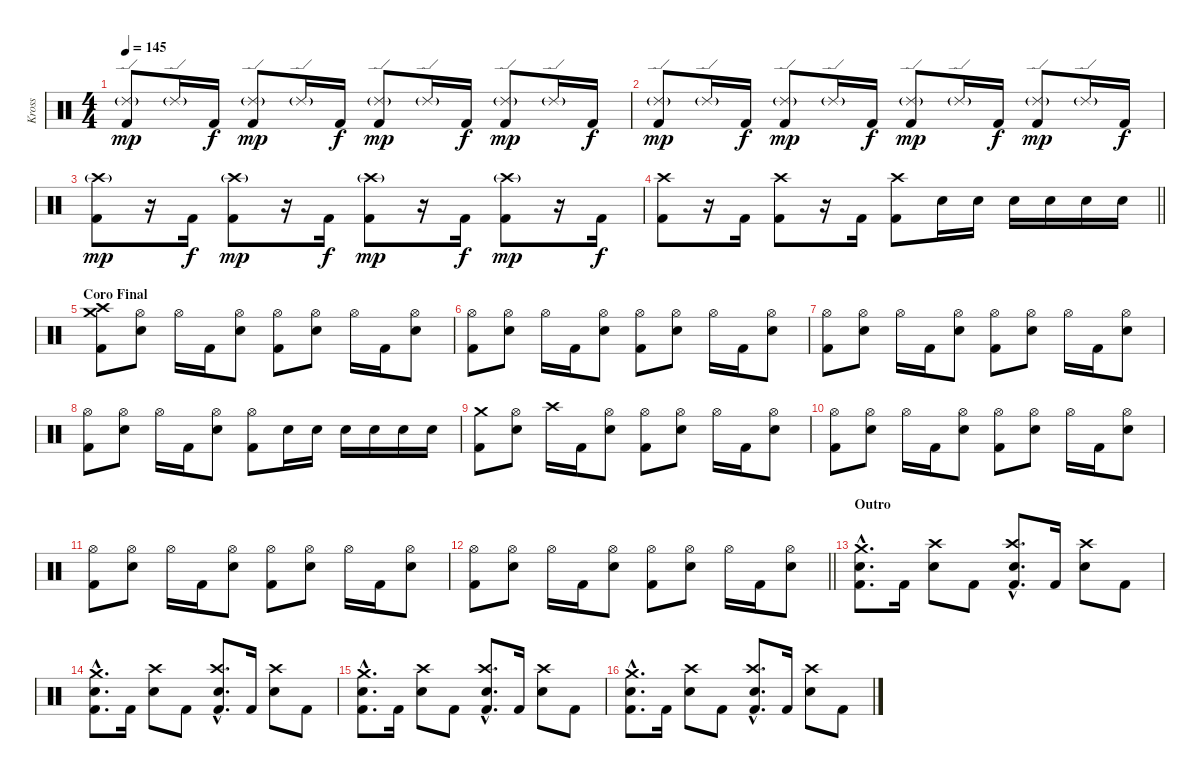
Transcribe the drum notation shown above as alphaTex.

\track ("Kross" "Kross") {instrument percussion}
\staff {score}
\articulation defaults
\ts (4 4)
\tempo 145
\clef neutral
\ks c
("Ride (edge) 2"{g} "Kick (hit) 2").8{dy mp} "Ride (edge) 2"{g}.16 "Kick (hit) 2".16{dy f} ("Ride (edge) 2"{g} "Kick (hit) 2").8{dy mp} "Ride (edge) 2"{g}.16 "Kick (hit) 2".16{dy f} ("Ride (edge) 2"{g} "Kick (hit) 2").8{dy mp} "Ride (edge) 2"{g}.16 "Kick (hit) 2".16{dy f} ("Ride (edge) 2"{g} "Kick (hit) 2").8{dy mp} "Ride (edge) 2"{g}.16 "Kick (hit) 2".16{dy f} |
("Ride (edge) 2"{g} "Kick (hit) 2").8{dy mp} "Ride (edge) 2"{g}.16 "Kick (hit) 2".16{dy f} ("Ride (edge) 2"{g} "Kick (hit) 2").8{dy mp} "Ride (edge) 2"{g}.16 "Kick (hit) 2".16{dy f} ("Ride (edge) 2"{g} "Kick (hit) 2").8{dy mp} "Ride (edge) 2"{g}.16 "Kick (hit) 2".16{dy f} ("Ride (edge) 2"{g} "Kick (hit) 2").8{dy mp} "Ride (edge) 2"{g}.16 "Kick (hit) 2".16{dy f} |
("Crash high (hit)"{g} "Kick (hit) 2").8{dy mp} r.16 "Kick (hit) 2".16{dy f} ("Crash high (hit)"{g} "Kick (hit) 2").8{dy mp} r.16 "Kick (hit) 2".16{dy f} ("Crash high (hit)"{g} "Kick (hit) 2").8{dy mp} r.16 "Kick (hit) 2".16{dy f} ("Crash high (hit)"{g} "Kick (hit) 2").8{dy mp} r.16 "Kick (hit) 2".16{dy f} |
\barLineRight lightlight
("Crash high (hit)" "Kick (hit) 2").8 r.16 "Kick (hit) 2".16 ("Crash high (hit)" "Kick (hit) 2").8 r.16 "Kick (hit) 2".16 ("Crash high (hit)" "Kick (hit) 2").8 "Electric Snare (hit)".16 "Electric Snare (hit)".16 "Electric Snare (hit)".16 "Electric Snare (hit)".16 "Electric Snare (hit)".16 "Electric Snare (hit)".16 |
\section ("" "Coro Final")
("Crash medium (hit)" "Crash high (hit)" "Kick (hit) 2").8 ("Hi-Hat (open)" "Electric Snare (hit)").8 "Hi-Hat (open)".16 "Kick (hit) 2".16 ("Hi-Hat (open)" "Electric Snare (hit)").8 ("Hi-Hat (open)" "Kick (hit) 2").8 ("Hi-Hat (open)" "Electric Snare (hit)").8 "Hi-Hat (open)".16 "Kick (hit) 2".16 ("Hi-Hat (open)" "Electric Snare (hit)").8 |
("Hi-Hat (open)" "Kick (hit) 2").8 ("Hi-Hat (open)" "Electric Snare (hit)").8 "Hi-Hat (open)".16 "Kick (hit) 2".16 ("Hi-Hat (open)" "Electric Snare (hit)").8 ("Hi-Hat (open)" "Kick (hit) 2").8 ("Hi-Hat (open)" "Electric Snare (hit)").8 "Hi-Hat (open)".16 "Kick (hit) 2".16 ("Hi-Hat (open)" "Electric Snare (hit)").8 |
("Hi-Hat (open)" "Kick (hit) 2").8 ("Hi-Hat (open)" "Electric Snare (hit)").8 "Hi-Hat (open)".16 "Kick (hit) 2".16 ("Hi-Hat (open)" "Electric Snare (hit)").8 ("Hi-Hat (open)" "Kick (hit) 2").8 ("Hi-Hat (open)" "Electric Snare (hit)").8 "Hi-Hat (open)".16 "Kick (hit) 2".16 ("Hi-Hat (open)" "Electric Snare (hit)").8 |
("Hi-Hat (open)" "Kick (hit) 2").8 ("Hi-Hat (open)" "Electric Snare (hit)").8 "Hi-Hat (open)".16 "Kick (hit) 2".16 ("Hi-Hat (open)" "Electric Snare (hit)").8 ("Hi-Hat (open)" "Kick (hit) 2").8 "Electric Snare (hit)".16 "Electric Snare (hit)".16 "Electric Snare (hit)".16 "Electric Snare (hit)".16 "Electric Snare (hit)".16 "Electric Snare (hit)".16 |
("Crash medium (hit)" "Kick (hit) 2").8 ("Hi-Hat (open)" "Electric Snare (hit)").8 "Crash high (hit)".16 "Kick (hit) 2".16 ("Hi-Hat (open)" "Electric Snare (hit)").8 ("Hi-Hat (open)" "Kick (hit) 2").8 ("Hi-Hat (open)" "Electric Snare (hit)").8 "Hi-Hat (open)".16 "Kick (hit) 2".16 ("Hi-Hat (open)" "Electric Snare (hit)").8 |
("Hi-Hat (open)" "Kick (hit) 2").8 ("Hi-Hat (open)" "Electric Snare (hit)").8 "Hi-Hat (open)".16 "Kick (hit) 2".16 ("Hi-Hat (open)" "Electric Snare (hit)").8 ("Hi-Hat (open)" "Kick (hit) 2").8 ("Hi-Hat (open)" "Electric Snare (hit)").8 "Hi-Hat (open)".16 "Kick (hit) 2".16 ("Hi-Hat (open)" "Electric Snare (hit)").8 |
("Hi-Hat (open)" "Kick (hit) 2").8 ("Hi-Hat (open)" "Electric Snare (hit)").8 "Hi-Hat (open)".16 "Kick (hit) 2".16 ("Hi-Hat (open)" "Electric Snare (hit)").8 ("Hi-Hat (open)" "Kick (hit) 2").8 ("Hi-Hat (open)" "Electric Snare (hit)").8 "Hi-Hat (open)".16 "Kick (hit) 2".16 ("Hi-Hat (open)" "Electric Snare (hit)").8 |
\barLineRight lightlight
("Hi-Hat (open)" "Kick (hit) 2").8 ("Hi-Hat (open)" "Electric Snare (hit)").8 "Hi-Hat (open)".16 "Kick (hit) 2".16 ("Hi-Hat (open)" "Electric Snare (hit)").8 ("Hi-Hat (open)" "Kick (hit) 2").8 ("Hi-Hat (open)" "Electric Snare (hit)").8 "Hi-Hat (open)".16 "Kick (hit) 2".16 ("Hi-Hat (open)" "Electric Snare (hit)").8 |
\section ("" "Outro")
("Crash medium (hit)"{hac} "Electric Snare (hit)"{hac} "Kick (hit) 2"{hac}).8{d} "Kick (hit) 2".16 ("Crash high (hit)" "Electric Snare (hit)").8 "Kick (hit) 2".8 ("Crash high (hit)"{hac} "Electric Snare (hit)"{hac} "Kick (hit) 2"{hac}).8{d} "Kick (hit) 2".16 ("Crash high (hit)" "Electric Snare (hit)").8 "Kick (hit) 2".8 |
("Crash medium (hit)"{hac} "Electric Snare (hit)"{hac} "Kick (hit) 2"{hac}).8{d} "Kick (hit) 2".16 ("Crash high (hit)" "Electric Snare (hit)").8 "Kick (hit) 2".8 ("Crash high (hit)"{hac} "Electric Snare (hit)"{hac} "Kick (hit) 2"{hac}).8{d} "Kick (hit) 2".16 ("Crash high (hit)" "Electric Snare (hit)").8 "Kick (hit) 2".8 |
("Crash medium (hit)"{hac} "Electric Snare (hit)"{hac} "Kick (hit) 2"{hac}).8{d} "Kick (hit) 2".16 ("Crash high (hit)" "Electric Snare (hit)").8 "Kick (hit) 2".8 ("Crash high (hit)"{hac} "Electric Snare (hit)"{hac} "Kick (hit) 2"{hac}).8{d} "Kick (hit) 2".16 ("Crash high (hit)" "Electric Snare (hit)").8 "Kick (hit) 2".8 |
("Crash medium (hit)"{hac} "Electric Snare (hit)"{hac} "Kick (hit) 2"{hac}).8{d} "Kick (hit) 2".16 ("Crash high (hit)" "Electric Snare (hit)").8 "Kick (hit) 2".8 ("Crash high (hit)"{hac} "Electric Snare (hit)"{hac} "Kick (hit) 2"{hac}).8{d} "Kick (hit) 2".16 ("Crash high (hit)" "Electric Snare (hit)").8 "Kick (hit) 2".8
